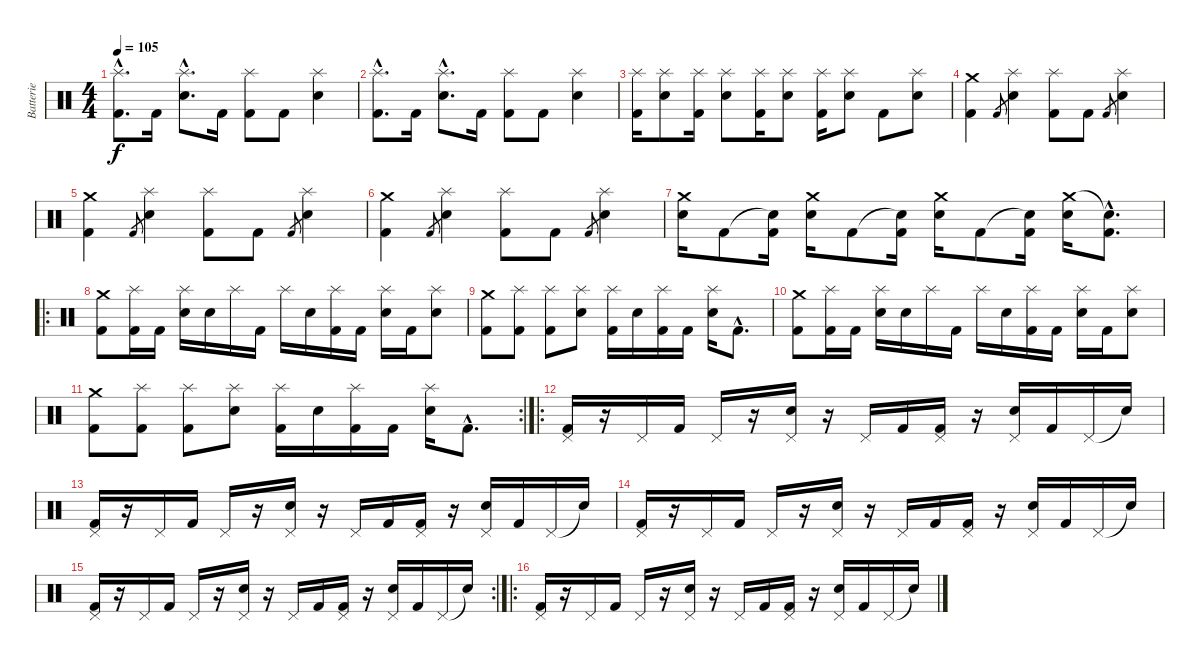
\track ("Batterie" "Batterie") {instrument percussion}
\staff {score}
\articulation defaults
\ts (4 4)
\tempo 105
\clef neutral
\ks c
("Splash (hit)"{hac} "Kick (hit) 2"{hac}).8{d dy f} "Kick (hit) 2".16 ("Splash (hit)"{hac} "Electric Snare (hit)"{hac}).8{d} "Kick (hit) 2".16 ("Splash (hit)" "Kick (hit) 2").8 "Kick (hit) 2".8 ("Splash (hit)" "Electric Snare (hit)").4 |
("Splash (hit)"{hac} "Kick (hit) 2"{hac}).8{d} "Kick (hit) 2".16 ("Splash (hit)"{hac} "Electric Snare (hit)"{hac}).8{d} "Kick (hit) 2".16 ("Splash (hit)" "Kick (hit) 2").8 "Kick (hit) 2".8 ("Splash (hit)" "Electric Snare (hit)").4 |
("Splash (hit)" "Kick (hit) 2").16 ("Splash (hit)" "Electric Snare (hit)").8 ("Splash (hit)" "Kick (hit) 2").16 ("Splash (hit)" "Electric Snare (hit)").8 ("Splash (hit)" "Kick (hit) 2").16 ("Splash (hit)" "Electric Snare (hit)").8 ("Splash (hit)" "Kick (hit) 2").16 ("Splash (hit)" "Electric Snare (hit)").8 "Kick (hit) 2"{tr (36 32)}.8 ("Splash (hit)" "Electric Snare (hit)").8 |
("Crash medium (hit)" "Kick (hit) 2").4 "Kick (hit) 2".8{gr} ("Splash (hit)" "Electric Snare (hit)").4 ("Splash (hit)" "Kick (hit) 2").8 "Kick (hit) 2".8 "Kick (hit) 2".8{gr} ("Splash (hit)" "Electric Snare (hit)").4 |
("Crash medium (hit)" "Kick (hit) 2").4 "Kick (hit) 2".8{gr} ("Splash (hit)" "Electric Snare (hit)").4 ("Splash (hit)" "Kick (hit) 2").8 "Kick (hit) 2".8 "Kick (hit) 2".8{gr} ("Splash (hit)" "Electric Snare (hit)").4 |
("Crash medium (hit)" "Kick (hit) 2").4 "Kick (hit) 2".8{gr} ("Splash (hit)" "Electric Snare (hit)").4 ("Splash (hit)" "Kick (hit) 2").8 "Kick (hit) 2".8 "Kick (hit) 2".8{gr} ("Splash (hit)" "Electric Snare (hit)").4 |
("Crash medium (hit)" "Electric Snare (hit)").16 "Kick (hit) 2".8 ("Snare (hit)"{t} "Kick (hit) 2").16 ("Crash medium (hit)" "Electric Snare (hit)").16 "Kick (hit) 2".8 ("Snare (hit)"{t} "Kick (hit) 2").16 ("Crash medium (hit)" "Electric Snare (hit)").16 "Kick (hit) 2".8 ("Snare (hit)"{t} "Kick (hit) 2").16 ("Crash medium (hit)" "Electric Snare (hit)").16 ("Snare (hit)"{hac t} "Kick (hit) 2"{hac}).8{d} |
\ro
("Crash medium (hit)" "Kick (hit) 2").8 ("Splash (hit)" "Kick (hit) 2").16 "Kick (hit) 2".16 ("Splash (hit)" "Electric Snare (hit)").16 "Electric Snare (hit)".16 "Splash (hit)".16 "Kick (hit) 2".16 "Splash (hit)".16 "Electric Snare (hit)".16 ("Splash (hit)" "Kick (hit) 2").16 "Kick (hit) 2".16 ("Splash (hit)" "Electric Snare (hit)").16 "Kick (hit) 2".16 ("Splash (hit)" "Electric Snare (hit)").8 |
("Crash medium (hit)" "Kick (hit) 2").8 ("Splash (hit)" "Kick (hit) 2").8 ("Splash (hit)" "Kick (hit) 2").8 ("Splash (hit)" "Electric Snare (hit)").8 ("Splash (hit)" "Kick (hit) 2").16 "Electric Snare (hit)".16 ("Splash (hit)" "Kick (hit) 2").16 "Kick (hit) 2".16 ("Splash (hit)" "Electric Snare (hit)").16 "Kick (hit) 2"{hac}.8{d} |
("Crash medium (hit)" "Kick (hit) 2").8 ("Splash (hit)" "Kick (hit) 2").16 "Kick (hit) 2".16 ("Splash (hit)" "Electric Snare (hit)").16 "Electric Snare (hit)".16 "Splash (hit)".16 "Kick (hit) 2".16 "Splash (hit)".16 "Electric Snare (hit)".16 ("Splash (hit)" "Kick (hit) 2").16 "Kick (hit) 2".16 ("Splash (hit)" "Electric Snare (hit)").16 "Kick (hit) 2".16 ("Splash (hit)" "Electric Snare (hit)").8 |
\rc 2
("Crash medium (hit)" "Kick (hit) 2").8 ("Splash (hit)" "Kick (hit) 2").8 ("Splash (hit)" "Kick (hit) 2").8 ("Splash (hit)" "Electric Snare (hit)").8 ("Splash (hit)" "Kick (hit) 2").16 "Electric Snare (hit)".16 ("Splash (hit)" "Kick (hit) 2").16 "Kick (hit) 2".16 ("Splash (hit)" "Electric Snare (hit)").16 "Kick (hit) 2"{hac}.8{d} |
\ro
("Pedal Hi-Hat (hit)" "Kick (hit) 2").16 r.16 "Pedal Hi-Hat (hit)".16 "Kick (hit) 2".16 "Pedal Hi-Hat (hit)".16 r.16 ("Pedal Hi-Hat (hit)" "Electric Snare (hit)").16 r.16 "Pedal Hi-Hat (hit)".16 "Kick (hit) 2".16 ("Pedal Hi-Hat (hit)" "Kick (hit) 2").16 r.16 ("Pedal Hi-Hat (hit)" "Electric Snare (hit)").16 "Kick (hit) 2".16 "Pedal Hi-Hat (hit)"{tr (44 64)}.16 "Snare (hit)"{t}.16 |
("Pedal Hi-Hat (hit)" "Kick (hit) 2").16 r.16 "Pedal Hi-Hat (hit)".16 "Kick (hit) 2".16 "Pedal Hi-Hat (hit)".16 r.16 ("Pedal Hi-Hat (hit)" "Electric Snare (hit)").16 r.16 "Pedal Hi-Hat (hit)".16 "Kick (hit) 2".16 ("Pedal Hi-Hat (hit)" "Kick (hit) 2").16 r.16 ("Pedal Hi-Hat (hit)" "Electric Snare (hit)").16 "Kick (hit) 2".16 "Pedal Hi-Hat (hit)"{tr (44 64)}.16 "Snare (hit)"{t}.16 |
("Pedal Hi-Hat (hit)" "Kick (hit) 2").16 r.16 "Pedal Hi-Hat (hit)".16 "Kick (hit) 2".16 "Pedal Hi-Hat (hit)".16 r.16 ("Pedal Hi-Hat (hit)" "Electric Snare (hit)").16 r.16 "Pedal Hi-Hat (hit)".16 "Kick (hit) 2".16 ("Pedal Hi-Hat (hit)" "Kick (hit) 2").16 r.16 ("Pedal Hi-Hat (hit)" "Electric Snare (hit)").16 "Kick (hit) 2".16 "Pedal Hi-Hat (hit)"{tr (44 64)}.16 "Snare (hit)"{t}.16 |
\rc 2
("Pedal Hi-Hat (hit)" "Kick (hit) 2").16 r.16 "Pedal Hi-Hat (hit)".16 "Kick (hit) 2".16 "Pedal Hi-Hat (hit)".16 r.16 ("Pedal Hi-Hat (hit)" "Electric Snare (hit)").16 r.16 "Pedal Hi-Hat (hit)".16 "Kick (hit) 2".16 ("Pedal Hi-Hat (hit)" "Kick (hit) 2").16 r.16 ("Pedal Hi-Hat (hit)" "Electric Snare (hit)").16 "Kick (hit) 2".16 "Pedal Hi-Hat (hit)"{tr (44 64)}.16 "Snare (hit)"{t}.16 |
\ro
("Pedal Hi-Hat (hit)" "Kick (hit) 2").16 r.16 "Pedal Hi-Hat (hit)".16 "Kick (hit) 2".16 "Pedal Hi-Hat (hit)".16 r.16 ("Pedal Hi-Hat (hit)" "Electric Snare (hit)").16 r.16 "Pedal Hi-Hat (hit)".16 "Kick (hit) 2".16 ("Pedal Hi-Hat (hit)" "Kick (hit) 2").16 r.16 ("Pedal Hi-Hat (hit)" "Electric Snare (hit)").16 "Kick (hit) 2".16 "Pedal Hi-Hat (hit)"{tr (44 64)}.16 "Snare (hit)"{t}.16
